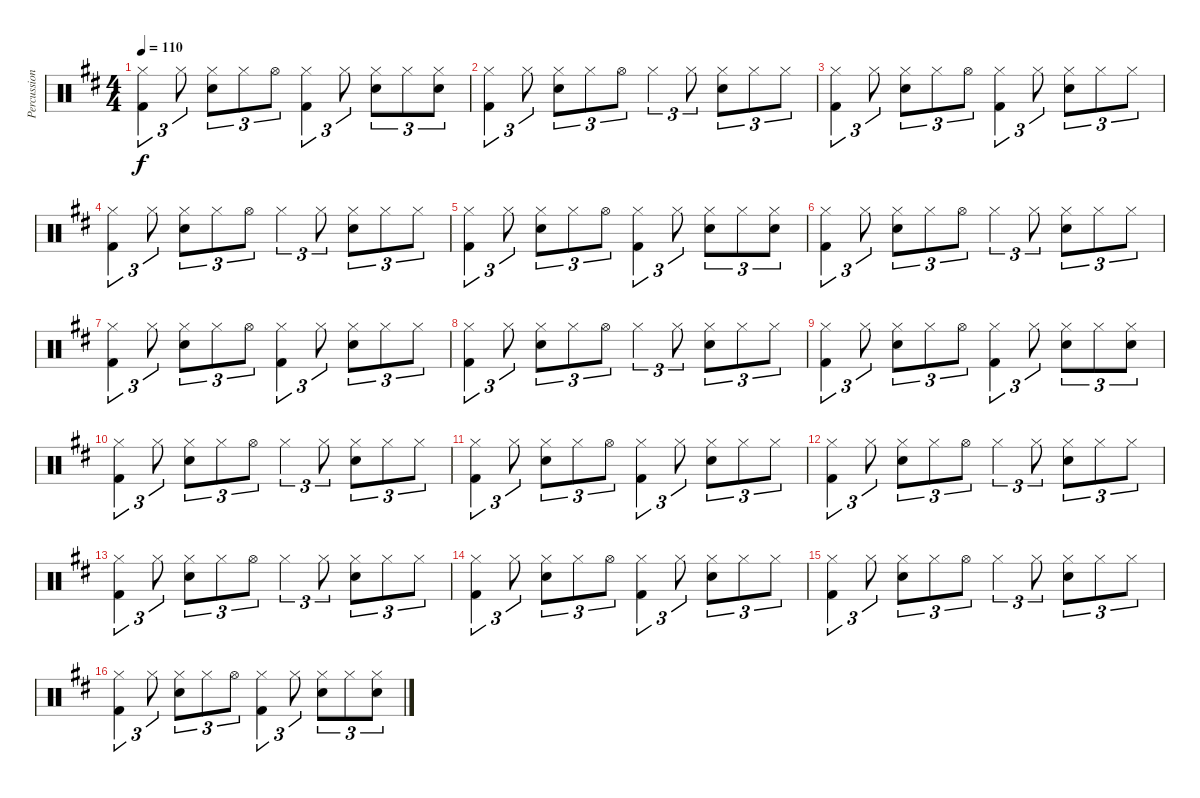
\track ("Percussion" "Percussion") {instrument percussion}
\staff {score}
\articulation defaults
\ts (4 4)
\tempo 110
\clef neutral
\ks d
("Hi-Hat (closed)" "Kick (hit) 2").4{tu (3 2) dy f} "Hi-Hat (closed)".8{tu (3 2)} ("Hi-Hat (closed)" "Snare (hit) 2").8{tu (3 2)} "Hi-Hat (closed)".8{tu (3 2)} "Hi-Hat (open)".8{tu (3 2)} ("Hi-Hat (closed)" "Kick (hit) 2").4{tu (3 2)} "Hi-Hat (closed)".8{tu (3 2)} ("Hi-Hat (closed)" "Snare (hit) 2").8{tu (3 2)} "Hi-Hat (closed)".8{tu (3 2)} ("Hi-Hat (closed)" "Snare (hit) 2").8{tu (3 2)} |
("Hi-Hat (closed)" "Kick (hit) 2").4{tu (3 2)} "Hi-Hat (closed)".8{tu (3 2)} ("Hi-Hat (closed)" "Snare (hit) 2").8{tu (3 2)} "Hi-Hat (closed)".8{tu (3 2)} "Hi-Hat (open)".8{tu (3 2)} "Hi-Hat (closed)".4{tu (3 2)} "Hi-Hat (closed)".8{tu (3 2)} ("Hi-Hat (closed)" "Snare (hit) 2").8{tu (3 2)} "Hi-Hat (closed)".8{tu (3 2)} "Hi-Hat (closed)".8{tu (3 2)} |
("Hi-Hat (closed)" "Kick (hit) 2").4{tu (3 2)} "Hi-Hat (closed)".8{tu (3 2)} ("Hi-Hat (closed)" "Snare (hit) 2").8{tu (3 2)} "Hi-Hat (closed)".8{tu (3 2)} "Hi-Hat (open)".8{tu (3 2)} ("Hi-Hat (closed)" "Kick (hit) 2").4{tu (3 2)} "Hi-Hat (closed)".8{tu (3 2)} ("Hi-Hat (closed)" "Snare (hit) 2").8{tu (3 2)} "Hi-Hat (closed)".8{tu (3 2)} "Hi-Hat (closed)".8{tu (3 2)} |
("Hi-Hat (closed)" "Kick (hit) 2").4{tu (3 2)} "Hi-Hat (closed)".8{tu (3 2)} ("Hi-Hat (closed)" "Snare (hit) 2").8{tu (3 2)} "Hi-Hat (closed)".8{tu (3 2)} "Hi-Hat (open)".8{tu (3 2)} "Hi-Hat (closed)".4{tu (3 2)} "Hi-Hat (closed)".8{tu (3 2)} ("Hi-Hat (closed)" "Snare (hit) 2").8{tu (3 2)} "Hi-Hat (closed)".8{tu (3 2)} "Hi-Hat (closed)".8{tu (3 2)} |
("Hi-Hat (closed)" "Kick (hit) 2").4{tu (3 2)} "Hi-Hat (closed)".8{tu (3 2)} ("Hi-Hat (closed)" "Snare (hit) 2").8{tu (3 2)} "Hi-Hat (closed)".8{tu (3 2)} "Hi-Hat (open)".8{tu (3 2)} ("Hi-Hat (closed)" "Kick (hit) 2").4{tu (3 2)} "Hi-Hat (closed)".8{tu (3 2)} ("Hi-Hat (closed)" "Snare (hit) 2").8{tu (3 2)} "Hi-Hat (closed)".8{tu (3 2)} ("Hi-Hat (closed)" "Snare (hit) 2").8{tu (3 2)} |
("Hi-Hat (closed)" "Kick (hit) 2").4{tu (3 2)} "Hi-Hat (closed)".8{tu (3 2)} ("Hi-Hat (closed)" "Snare (hit) 2").8{tu (3 2)} "Hi-Hat (closed)".8{tu (3 2)} "Hi-Hat (open)".8{tu (3 2)} "Hi-Hat (closed)".4{tu (3 2)} "Hi-Hat (closed)".8{tu (3 2)} ("Hi-Hat (closed)" "Snare (hit) 2").8{tu (3 2)} "Hi-Hat (closed)".8{tu (3 2)} "Hi-Hat (closed)".8{tu (3 2)} |
("Hi-Hat (closed)" "Kick (hit) 2").4{tu (3 2)} "Hi-Hat (closed)".8{tu (3 2)} ("Hi-Hat (closed)" "Snare (hit) 2").8{tu (3 2)} "Hi-Hat (closed)".8{tu (3 2)} "Hi-Hat (open)".8{tu (3 2)} ("Hi-Hat (closed)" "Kick (hit) 2").4{tu (3 2)} "Hi-Hat (closed)".8{tu (3 2)} ("Hi-Hat (closed)" "Snare (hit) 2").8{tu (3 2)} "Hi-Hat (closed)".8{tu (3 2)} "Hi-Hat (closed)".8{tu (3 2)} |
("Hi-Hat (closed)" "Kick (hit) 2").4{tu (3 2)} "Hi-Hat (closed)".8{tu (3 2)} ("Hi-Hat (closed)" "Snare (hit) 2").8{tu (3 2)} "Hi-Hat (closed)".8{tu (3 2)} "Hi-Hat (open)".8{tu (3 2)} "Hi-Hat (closed)".4{tu (3 2)} "Hi-Hat (closed)".8{tu (3 2)} ("Hi-Hat (closed)" "Snare (hit) 2").8{tu (3 2)} "Hi-Hat (closed)".8{tu (3 2)} "Hi-Hat (closed)".8{tu (3 2)} |
("Hi-Hat (closed)" "Kick (hit) 2").4{tu (3 2)} "Hi-Hat (closed)".8{tu (3 2)} ("Hi-Hat (closed)" "Snare (hit) 2").8{tu (3 2)} "Hi-Hat (closed)".8{tu (3 2)} "Hi-Hat (open)".8{tu (3 2)} ("Hi-Hat (closed)" "Kick (hit) 2").4{tu (3 2)} "Hi-Hat (closed)".8{tu (3 2)} ("Hi-Hat (closed)" "Snare (hit) 2").8{tu (3 2)} "Hi-Hat (closed)".8{tu (3 2)} ("Hi-Hat (closed)" "Snare (hit) 2").8{tu (3 2)} |
("Hi-Hat (closed)" "Kick (hit) 2").4{tu (3 2)} "Hi-Hat (closed)".8{tu (3 2)} ("Hi-Hat (closed)" "Snare (hit) 2").8{tu (3 2)} "Hi-Hat (closed)".8{tu (3 2)} "Hi-Hat (open)".8{tu (3 2)} "Hi-Hat (closed)".4{tu (3 2)} "Hi-Hat (closed)".8{tu (3 2)} ("Hi-Hat (closed)" "Snare (hit) 2").8{tu (3 2)} "Hi-Hat (closed)".8{tu (3 2)} "Hi-Hat (closed)".8{tu (3 2)} |
("Hi-Hat (closed)" "Kick (hit) 2").4{tu (3 2)} "Hi-Hat (closed)".8{tu (3 2)} ("Hi-Hat (closed)" "Snare (hit) 2").8{tu (3 2)} "Hi-Hat (closed)".8{tu (3 2)} "Hi-Hat (open)".8{tu (3 2)} ("Hi-Hat (closed)" "Kick (hit) 2").4{tu (3 2)} "Hi-Hat (closed)".8{tu (3 2)} ("Hi-Hat (closed)" "Snare (hit) 2").8{tu (3 2)} "Hi-Hat (closed)".8{tu (3 2)} "Hi-Hat (closed)".8{tu (3 2)} |
("Hi-Hat (closed)" "Kick (hit) 2").4{tu (3 2)} "Hi-Hat (closed)".8{tu (3 2)} ("Hi-Hat (closed)" "Snare (hit) 2").8{tu (3 2)} "Hi-Hat (closed)".8{tu (3 2)} "Hi-Hat (open)".8{tu (3 2)} "Hi-Hat (closed)".4{tu (3 2)} "Hi-Hat (closed)".8{tu (3 2)} ("Hi-Hat (closed)" "Snare (hit) 2").8{tu (3 2)} "Hi-Hat (closed)".8{tu (3 2)} "Hi-Hat (closed)".8{tu (3 2)} |
("Hi-Hat (closed)" "Kick (hit) 2").4{tu (3 2)} "Hi-Hat (closed)".8{tu (3 2)} ("Hi-Hat (closed)" "Snare (hit) 2").8{tu (3 2)} "Hi-Hat (closed)".8{tu (3 2)} "Hi-Hat (open)".8{tu (3 2)} "Hi-Hat (closed)".4{tu (3 2)} "Hi-Hat (closed)".8{tu (3 2)} ("Hi-Hat (closed)" "Snare (hit) 2").8{tu (3 2)} "Hi-Hat (closed)".8{tu (3 2)} "Hi-Hat (closed)".8{tu (3 2)} |
("Hi-Hat (closed)" "Kick (hit) 2").4{tu (3 2)} "Hi-Hat (closed)".8{tu (3 2)} ("Hi-Hat (closed)" "Snare (hit) 2").8{tu (3 2)} "Hi-Hat (closed)".8{tu (3 2)} "Hi-Hat (open)".8{tu (3 2)} ("Hi-Hat (closed)" "Kick (hit) 2").4{tu (3 2)} "Hi-Hat (closed)".8{tu (3 2)} ("Hi-Hat (closed)" "Snare (hit) 2").8{tu (3 2)} "Hi-Hat (closed)".8{tu (3 2)} "Hi-Hat (closed)".8{tu (3 2)} |
("Hi-Hat (closed)" "Kick (hit) 2").4{tu (3 2)} "Hi-Hat (closed)".8{tu (3 2)} ("Hi-Hat (closed)" "Snare (hit) 2").8{tu (3 2)} "Hi-Hat (closed)".8{tu (3 2)} "Hi-Hat (open)".8{tu (3 2)} "Hi-Hat (closed)".4{tu (3 2)} "Hi-Hat (closed)".8{tu (3 2)} ("Hi-Hat (closed)" "Snare (hit) 2").8{tu (3 2)} "Hi-Hat (closed)".8{tu (3 2)} "Hi-Hat (closed)".8{tu (3 2)} |
("Hi-Hat (closed)" "Kick (hit) 2").4{tu (3 2)} "Hi-Hat (closed)".8{tu (3 2)} ("Hi-Hat (closed)" "Snare (hit) 2").8{tu (3 2)} "Hi-Hat (closed)".8{tu (3 2)} "Hi-Hat (open)".8{tu (3 2)} ("Hi-Hat (closed)" "Kick (hit) 2").4{tu (3 2)} "Hi-Hat (closed)".8{tu (3 2)} ("Hi-Hat (closed)" "Snare (hit) 2").8{tu (3 2)} "Hi-Hat (closed)".8{tu (3 2)} ("Hi-Hat (closed)" "Snare (hit) 2").8{tu (3 2)}
